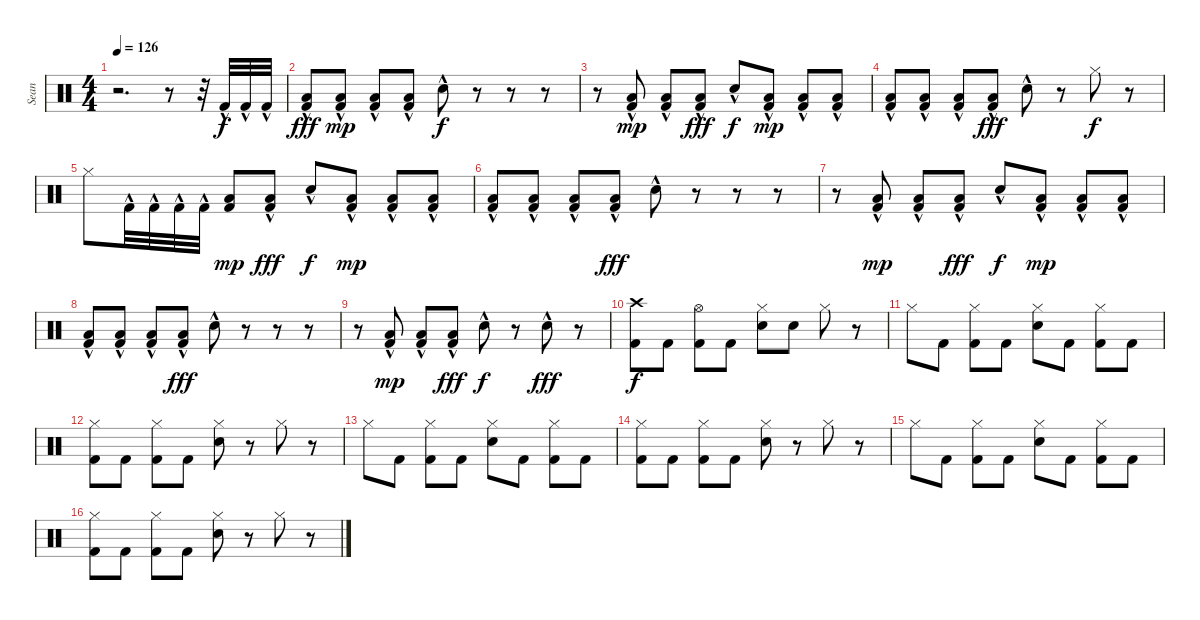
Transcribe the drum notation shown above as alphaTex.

\track ("Sean" "Sean") {instrument percussion}
\staff {score}
\articulation defaults
\ts (4 4)
\tempo 127
\tempo 126
\clef neutral
\ks c
r.2{d dy f} r.8 r.32 "Kick (hit) 2"{hac}.32 "Kick (hit) 2"{hac}.32 "Kick (hit) 2"{hac}.32 |
("Low Floor Tom (hit)" "Kick (hit) 2"{hac}).8{dy fff} ("Low Floor Tom (hit)" "Kick (hit) 2"{hac}).8{dy mp} ("Low Floor Tom (hit)" "Kick (hit) 2"{hac}).8 ("Low Floor Tom (hit)" "Kick (hit) 2"{hac}).8 "Snare (hit) 2"{hac}.8{dy f} r.8 r.8 r.8 |
r.8 ("Low Floor Tom (hit)" "Kick (hit) 2"{hac}).8{dy mp} ("Low Floor Tom (hit)" "Kick (hit) 2"{hac}).8 ("Low Floor Tom (hit)"{hac} "Kick (hit) 2"{hac}).8{dy fff} "Snare (hit) 2"{hac}.8{dy f} ("Low Floor Tom (hit)" "Kick (hit) 2"{hac}).8{dy mp} ("Low Floor Tom (hit)" "Kick (hit) 2"{hac}).8 ("Low Floor Tom (hit)" "Kick (hit) 2"{hac}).8 |
("Low Floor Tom (hit)" "Kick (hit) 2"{hac}).8 ("Low Floor Tom (hit)" "Kick (hit) 2"{hac}).8 ("Low Floor Tom (hit)" "Kick (hit) 2"{hac}).8 ("Low Floor Tom (hit)"{hac} "Kick (hit) 2"{hac}).8{dy fff} "Snare (hit) 2"{hac}.8 r.8 "Hi-Hat (closed)".8{dy f} r.8 |
"Hi-Hat (closed)".8 "Kick (hit) 2"{hac}.32 "Kick (hit) 2"{hac}.32 "Kick (hit) 2"{hac}.32 "Kick (hit) 2"{hac}.32 ("Low Floor Tom (hit)" "Kick (hit) 2").8{dy mp} ("Low Floor Tom (hit)" "Kick (hit) 2"{hac}).8{dy fff} "Snare (hit) 2"{hac}.8{dy f} ("Low Floor Tom (hit)" "Kick (hit) 2"{hac}).8{dy mp} ("Low Floor Tom (hit)" "Kick (hit) 2"{hac}).8 ("Low Floor Tom (hit)" "Kick (hit) 2"{hac}).8 |
("Low Floor Tom (hit)" "Kick (hit) 2"{hac}).8 ("Low Floor Tom (hit)" "Kick (hit) 2"{hac}).8 ("Low Floor Tom (hit)" "Kick (hit) 2"{hac}).8 ("Low Floor Tom (hit)"{hac} "Kick (hit) 2"{hac}).8{dy fff} "Snare (hit) 2"{hac}.8 r.8 r.8 r.8 |
r.8 ("Low Floor Tom (hit)" "Kick (hit) 2"{hac}).8{dy mp} ("Low Floor Tom (hit)" "Kick (hit) 2"{hac}).8 ("Low Floor Tom (hit)"{hac} "Kick (hit) 2"{hac}).8{dy fff} "Snare (hit) 2"{hac}.8{dy f} ("Low Floor Tom (hit)" "Kick (hit) 2"{hac}).8{dy mp} ("Low Floor Tom (hit)" "Kick (hit) 2"{hac}).8 ("Low Floor Tom (hit)" "Kick (hit) 2"{hac}).8 |
("Low Floor Tom (hit)" "Kick (hit) 2"{hac}).8 ("Low Floor Tom (hit)" "Kick (hit) 2"{hac}).8 ("Low Floor Tom (hit)" "Kick (hit) 2"{hac}).8 ("Low Floor Tom (hit)"{hac} "Kick (hit) 2"{hac}).8{dy fff} "Snare (hit) 2"{hac}.8 r.8 r.8 r.8 |
r.8 ("Low Floor Tom (hit)" "Kick (hit) 2"{hac}).8{dy mp} ("Low Floor Tom (hit)" "Kick (hit) 2"{hac}).8 ("Low Floor Tom (hit)"{hac} "Kick (hit) 2"{hac}).8{dy fff} "Snare (hit) 2"{hac}.8{dy f} r.8 "Snare (hit) 2"{hac}.8{dy fff} r.8 |
("Crash high (hit)" "Kick (hit) 2").8{dy f} "Kick (hit) 2".8 ("Hi-Hat (open)" "Kick (hit) 2").8 "Kick (hit) 2".8 ("Hi-Hat (closed)" "Snare (hit) 2").8 "Snare (hit) 2".8 "Hi-Hat (closed)".8 r.8 |
"Hi-Hat (closed)".8 "Kick (hit) 2".8 ("Hi-Hat (closed)" "Kick (hit) 2").8 "Kick (hit) 2".8 ("Hi-Hat (closed)" "Snare (hit) 2").8 "Kick (hit) 2".8 ("Hi-Hat (closed)" "Kick (hit) 2").8 "Kick (hit) 2".8 |
("Hi-Hat (closed)" "Kick (hit) 2").8 "Kick (hit) 2".8 ("Hi-Hat (closed)" "Kick (hit) 2").8 "Kick (hit) 2".8 ("Hi-Hat (closed)" "Snare (hit) 2").8 r.8 "Hi-Hat (closed)".8 r.8 |
"Hi-Hat (closed)".8 "Kick (hit) 2".8 ("Hi-Hat (closed)" "Kick (hit) 2").8 "Kick (hit) 2".8 ("Hi-Hat (closed)" "Snare (hit) 2").8 "Kick (hit) 2".8 ("Hi-Hat (closed)" "Kick (hit) 2").8 "Kick (hit) 2".8 |
("Hi-Hat (closed)" "Kick (hit) 2").8 "Kick (hit) 2".8 ("Hi-Hat (closed)" "Kick (hit) 2").8 "Kick (hit) 2".8 ("Hi-Hat (closed)" "Snare (hit) 2").8 r.8 "Hi-Hat (closed)".8 r.8 |
"Hi-Hat (closed)".8 "Kick (hit) 2".8 ("Hi-Hat (closed)" "Kick (hit) 2").8 "Kick (hit) 2".8 ("Hi-Hat (closed)" "Snare (hit) 2").8 "Kick (hit) 2".8 ("Hi-Hat (closed)" "Kick (hit) 2").8 "Kick (hit) 2".8 |
("Hi-Hat (closed)" "Kick (hit) 2").8 "Kick (hit) 2".8 ("Hi-Hat (closed)" "Kick (hit) 2").8 "Kick (hit) 2".8 ("Hi-Hat (closed)" "Snare (hit) 2").8 r.8 "Hi-Hat (closed)".8 r.8
